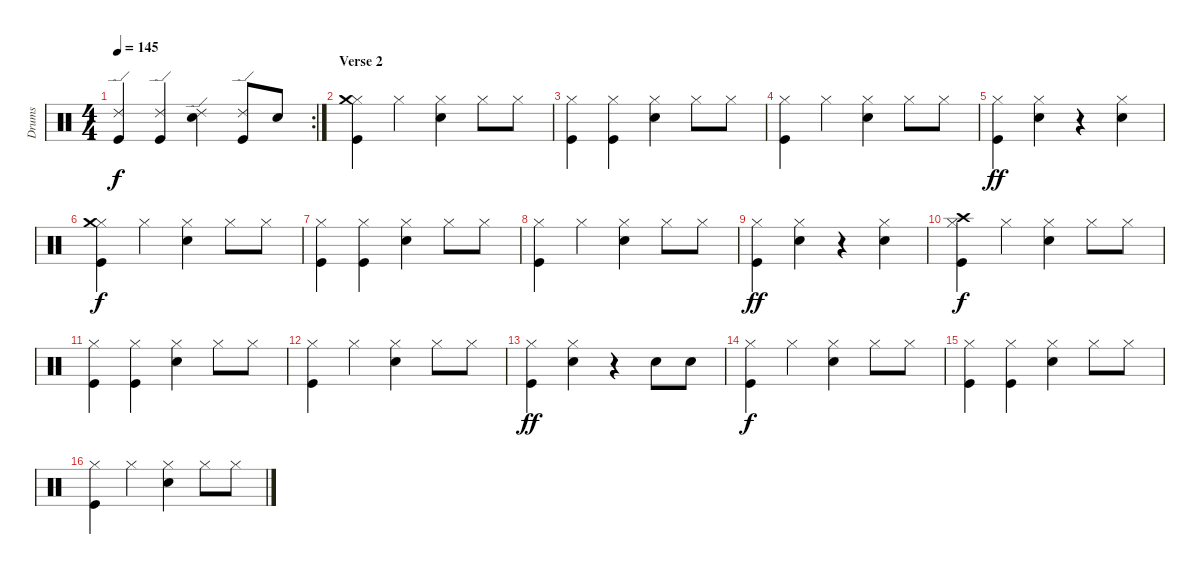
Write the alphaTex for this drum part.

\track ("Drums" "Drums") {instrument percussion}
\staff {score}
\articulation defaults
\rc 2
\ts (4 4)
\tempo 145
\clef neutral
\ks c
("Ride (edge) 2" "Kick (hit)").4{dy f} ("Ride (edge) 2" "Kick (hit)").4 ("Ride (edge) 2" "Electric Snare (hit)").4 ("Ride (edge) 2" "Kick (hit)").8 "Electric Snare (hit)".8 |
\section ("" "Verse 2")
("Hi-Hat (closed)" "Crash medium (hit)" "Kick (hit)").4 "Hi-Hat (closed)".4 ("Hi-Hat (closed)" "Electric Snare (hit)").4 "Hi-Hat (closed)".8 "Hi-Hat (closed)".8 |
("Hi-Hat (closed)" "Kick (hit)").4 ("Hi-Hat (closed)" "Kick (hit)").4 ("Hi-Hat (closed)" "Electric Snare (hit)").4 "Hi-Hat (closed)".8 "Hi-Hat (closed)".8 |
("Hi-Hat (closed)" "Kick (hit)").4 "Hi-Hat (closed)".4 ("Hi-Hat (closed)" "Electric Snare (hit)").4 "Hi-Hat (closed)".8 "Hi-Hat (closed)".8 |
("Hi-Hat (closed)" "Kick (hit)").4{dy ff} ("Hi-Hat (closed)" "Electric Snare (hit)").4 r.4 ("Hi-Hat (closed)" "Electric Snare (hit)").4 |
("Hi-Hat (closed)" "Crash medium (hit)" "Kick (hit)").4{dy f} "Hi-Hat (closed)".4 ("Hi-Hat (closed)" "Electric Snare (hit)").4 "Hi-Hat (closed)".8 "Hi-Hat (closed)".8 |
("Hi-Hat (closed)" "Kick (hit)").4 ("Hi-Hat (closed)" "Kick (hit)").4 ("Hi-Hat (closed)" "Electric Snare (hit)").4 "Hi-Hat (closed)".8 "Hi-Hat (closed)".8 |
("Hi-Hat (closed)" "Kick (hit)").4 "Hi-Hat (closed)".4 ("Hi-Hat (closed)" "Electric Snare (hit)").4 "Hi-Hat (closed)".8 "Hi-Hat (closed)".8 |
("Hi-Hat (closed)" "Kick (hit)").4{dy ff} ("Hi-Hat (closed)" "Electric Snare (hit)").4 r.4 ("Hi-Hat (closed)" "Electric Snare (hit)").4 |
("Hi-Hat (closed)" "Crash high (hit)" "Kick (hit)").4{dy f} "Hi-Hat (closed)".4 ("Hi-Hat (closed)" "Electric Snare (hit)").4 "Hi-Hat (closed)".8 "Hi-Hat (closed)".8 |
("Hi-Hat (closed)" "Kick (hit)").4 ("Hi-Hat (closed)" "Kick (hit)").4 ("Hi-Hat (closed)" "Electric Snare (hit)").4 "Hi-Hat (closed)".8 "Hi-Hat (closed)".8 |
("Hi-Hat (closed)" "Kick (hit)").4 "Hi-Hat (closed)".4 ("Hi-Hat (closed)" "Electric Snare (hit)").4 "Hi-Hat (closed)".8 "Hi-Hat (closed)".8 |
("Hi-Hat (closed)" "Kick (hit)").4{dy ff} ("Hi-Hat (closed)" "Electric Snare (hit)").4 r.4 "Electric Snare (hit)".8 "Electric Snare (hit)".8 |
("Hi-Hat (closed)" "Kick (hit)").4{dy f} "Hi-Hat (closed)".4 ("Hi-Hat (closed)" "Electric Snare (hit)").4 "Hi-Hat (closed)".8 "Hi-Hat (closed)".8 |
("Hi-Hat (closed)" "Kick (hit)").4 ("Hi-Hat (closed)" "Kick (hit)").4 ("Hi-Hat (closed)" "Electric Snare (hit)").4 "Hi-Hat (closed)".8 "Hi-Hat (closed)".8 |
("Hi-Hat (closed)" "Kick (hit)").4 "Hi-Hat (closed)".4 ("Hi-Hat (closed)" "Electric Snare (hit)").4 "Hi-Hat (closed)".8 "Hi-Hat (closed)".8
